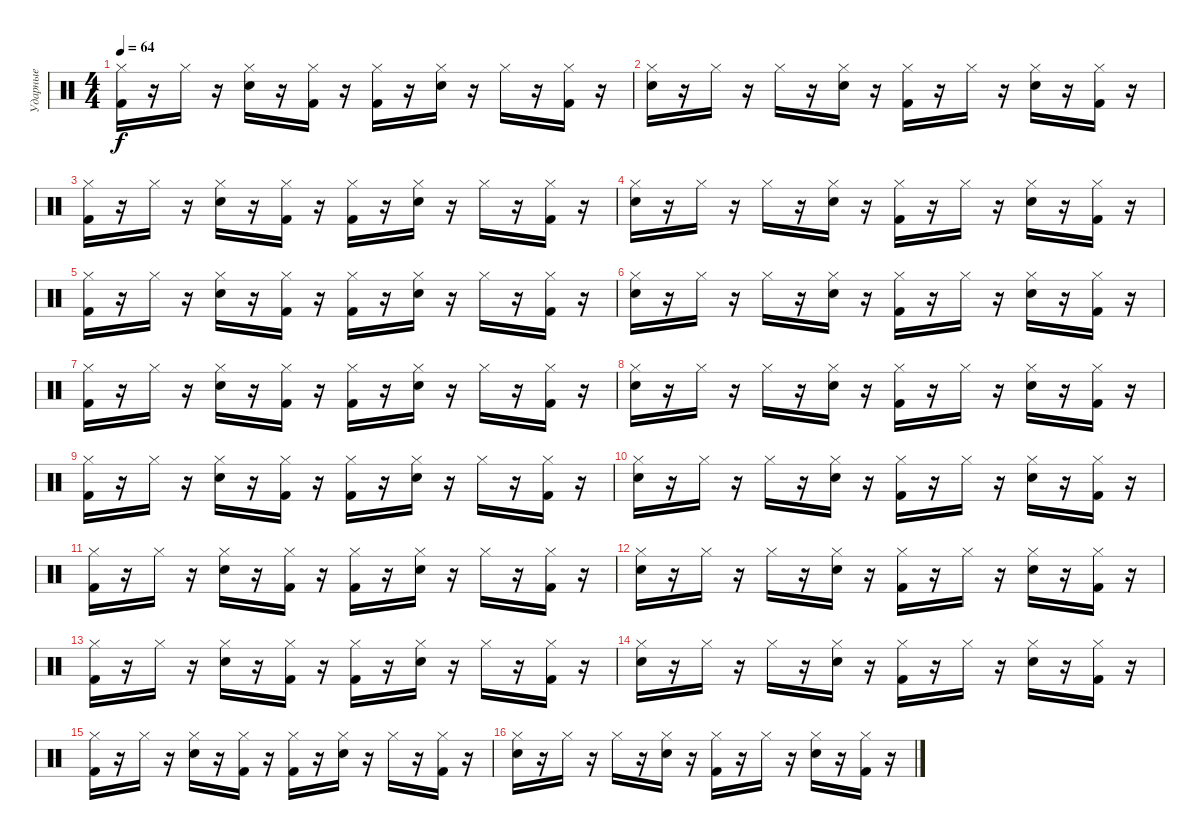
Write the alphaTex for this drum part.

\track ("Ударные" "Ударные") {instrument percussion}
\staff {score}
\articulation defaults
\ts (4 4)
\section ("" "")
\tempo 64
\clef neutral
\ks c
("Hi-Hat (closed)" "Kick (hit) 2").16{dy f} r.16 "Hi-Hat (closed)".16 r.16 ("Hi-Hat (closed)" "Snare (hit) 2").16 r.16 ("Hi-Hat (closed)" "Kick (hit) 2").16 r.16 ("Hi-Hat (closed)" "Kick (hit) 2").16 r.16 ("Hi-Hat (closed)" "Snare (hit) 2").16 r.16 "Hi-Hat (closed)".16 r.16 ("Hi-Hat (closed)" "Kick (hit) 2").16 r.16 |
("Hi-Hat (closed)" "Snare (hit) 2").16 r.16 "Hi-Hat (closed)".16 r.16 "Hi-Hat (closed)".16 r.16 ("Hi-Hat (closed)" "Snare (hit) 2").16 r.16 ("Hi-Hat (closed)" "Kick (hit) 2").16 r.16 "Hi-Hat (closed)".16 r.16 ("Hi-Hat (closed)" "Snare (hit) 2").16 r.16 ("Hi-Hat (closed)" "Kick (hit) 2").16 r.16 |
("Hi-Hat (closed)" "Kick (hit) 2").16 r.16 "Hi-Hat (closed)".16 r.16 ("Hi-Hat (closed)" "Snare (hit) 2").16 r.16 ("Hi-Hat (closed)" "Kick (hit) 2").16 r.16 ("Hi-Hat (closed)" "Kick (hit) 2").16 r.16 ("Hi-Hat (closed)" "Snare (hit) 2").16 r.16 "Hi-Hat (closed)".16 r.16 ("Hi-Hat (closed)" "Kick (hit) 2").16 r.16 |
("Hi-Hat (closed)" "Snare (hit) 2").16 r.16 "Hi-Hat (closed)".16 r.16 "Hi-Hat (closed)".16 r.16 ("Hi-Hat (closed)" "Snare (hit) 2").16 r.16 ("Hi-Hat (closed)" "Kick (hit) 2").16 r.16 "Hi-Hat (closed)".16 r.16 ("Hi-Hat (closed)" "Snare (hit) 2").16 r.16 ("Hi-Hat (closed)" "Kick (hit) 2").16 r.16 |
("Hi-Hat (closed)" "Kick (hit) 2").16 r.16 "Hi-Hat (closed)".16 r.16 ("Hi-Hat (closed)" "Snare (hit) 2").16 r.16 ("Hi-Hat (closed)" "Kick (hit) 2").16 r.16 ("Hi-Hat (closed)" "Kick (hit) 2").16 r.16 ("Hi-Hat (closed)" "Snare (hit) 2").16 r.16 "Hi-Hat (closed)".16 r.16 ("Hi-Hat (closed)" "Kick (hit) 2").16 r.16 |
("Hi-Hat (closed)" "Snare (hit) 2").16 r.16 "Hi-Hat (closed)".16 r.16 "Hi-Hat (closed)".16 r.16 ("Hi-Hat (closed)" "Snare (hit) 2").16 r.16 ("Hi-Hat (closed)" "Kick (hit) 2").16 r.16 "Hi-Hat (closed)".16 r.16 ("Hi-Hat (closed)" "Snare (hit) 2").16 r.16 ("Hi-Hat (closed)" "Kick (hit) 2").16 r.16 |
("Hi-Hat (closed)" "Kick (hit) 2").16 r.16 "Hi-Hat (closed)".16 r.16 ("Hi-Hat (closed)" "Snare (hit) 2").16 r.16 ("Hi-Hat (closed)" "Kick (hit) 2").16 r.16 ("Hi-Hat (closed)" "Kick (hit) 2").16 r.16 ("Hi-Hat (closed)" "Snare (hit) 2").16 r.16 "Hi-Hat (closed)".16 r.16 ("Hi-Hat (closed)" "Kick (hit) 2").16 r.16 |
("Hi-Hat (closed)" "Snare (hit) 2").16 r.16 "Hi-Hat (closed)".16 r.16 "Hi-Hat (closed)".16 r.16 ("Hi-Hat (closed)" "Snare (hit) 2").16 r.16 ("Hi-Hat (closed)" "Kick (hit) 2").16 r.16 "Hi-Hat (closed)".16 r.16 ("Hi-Hat (closed)" "Snare (hit) 2").16 r.16 ("Hi-Hat (closed)" "Kick (hit) 2").16 r.16 |
("Hi-Hat (closed)" "Kick (hit) 2").16 r.16 "Hi-Hat (closed)".16 r.16 ("Hi-Hat (closed)" "Snare (hit) 2").16 r.16 ("Hi-Hat (closed)" "Kick (hit) 2").16 r.16 ("Hi-Hat (closed)" "Kick (hit) 2").16 r.16 ("Hi-Hat (closed)" "Snare (hit) 2").16 r.16 "Hi-Hat (closed)".16 r.16 ("Hi-Hat (closed)" "Kick (hit) 2").16 r.16 |
("Hi-Hat (closed)" "Snare (hit) 2").16 r.16 "Hi-Hat (closed)".16 r.16 "Hi-Hat (closed)".16 r.16 ("Hi-Hat (closed)" "Snare (hit) 2").16 r.16 ("Hi-Hat (closed)" "Kick (hit) 2").16 r.16 "Hi-Hat (closed)".16 r.16 ("Hi-Hat (closed)" "Snare (hit) 2").16 r.16 ("Hi-Hat (closed)" "Kick (hit) 2").16 r.16 |
("Hi-Hat (closed)" "Kick (hit) 2").16 r.16 "Hi-Hat (closed)".16 r.16 ("Hi-Hat (closed)" "Snare (hit) 2").16 r.16 ("Hi-Hat (closed)" "Kick (hit) 2").16 r.16 ("Hi-Hat (closed)" "Kick (hit) 2").16 r.16 ("Hi-Hat (closed)" "Snare (hit) 2").16 r.16 "Hi-Hat (closed)".16 r.16 ("Hi-Hat (closed)" "Kick (hit) 2").16 r.16 |
("Hi-Hat (closed)" "Snare (hit) 2").16 r.16 "Hi-Hat (closed)".16 r.16 "Hi-Hat (closed)".16 r.16 ("Hi-Hat (closed)" "Snare (hit) 2").16 r.16 ("Hi-Hat (closed)" "Kick (hit) 2").16 r.16 "Hi-Hat (closed)".16 r.16 ("Hi-Hat (closed)" "Snare (hit) 2").16 r.16 ("Hi-Hat (closed)" "Kick (hit) 2").16 r.16 |
("Hi-Hat (closed)" "Kick (hit) 2").16 r.16 "Hi-Hat (closed)".16 r.16 ("Hi-Hat (closed)" "Snare (hit) 2").16 r.16 ("Hi-Hat (closed)" "Kick (hit) 2").16 r.16 ("Hi-Hat (closed)" "Kick (hit) 2").16 r.16 ("Hi-Hat (closed)" "Snare (hit) 2").16 r.16 "Hi-Hat (closed)".16 r.16 ("Hi-Hat (closed)" "Kick (hit) 2").16 r.16 |
("Hi-Hat (closed)" "Snare (hit) 2").16 r.16 "Hi-Hat (closed)".16 r.16 "Hi-Hat (closed)".16 r.16 ("Hi-Hat (closed)" "Snare (hit) 2").16 r.16 ("Hi-Hat (closed)" "Kick (hit) 2").16 r.16 "Hi-Hat (closed)".16 r.16 ("Hi-Hat (closed)" "Snare (hit) 2").16 r.16 ("Hi-Hat (closed)" "Kick (hit) 2").16 r.16 |
("Hi-Hat (closed)" "Kick (hit) 2").16 r.16 "Hi-Hat (closed)".16 r.16 ("Hi-Hat (closed)" "Snare (hit) 2").16 r.16 ("Hi-Hat (closed)" "Kick (hit) 2").16 r.16 ("Hi-Hat (closed)" "Kick (hit) 2").16 r.16 ("Hi-Hat (closed)" "Snare (hit) 2").16 r.16 "Hi-Hat (closed)".16 r.16 ("Hi-Hat (closed)" "Kick (hit) 2").16 r.16 |
("Hi-Hat (closed)" "Snare (hit) 2").16 r.16 "Hi-Hat (closed)".16 r.16 "Hi-Hat (closed)".16 r.16 ("Hi-Hat (closed)" "Snare (hit) 2").16 r.16 ("Hi-Hat (closed)" "Kick (hit) 2").16 r.16 "Hi-Hat (closed)".16 r.16 ("Hi-Hat (closed)" "Snare (hit) 2").16 r.16 ("Hi-Hat (closed)" "Kick (hit) 2").16 r.16
